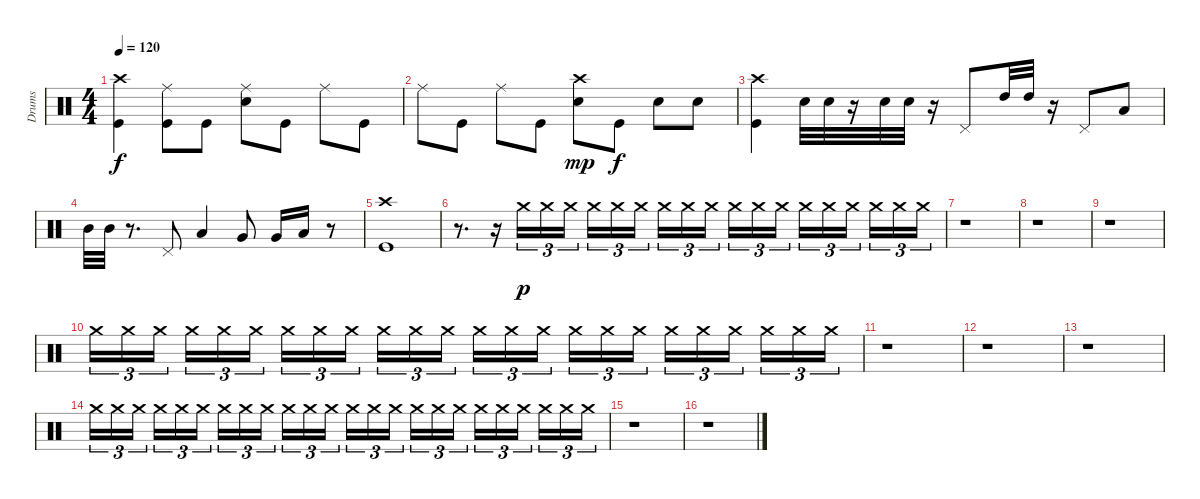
\track ("Drums" "Drums") {instrument percussion}
\staff {score}
\articulation defaults
\ts (4 4)
\tempo 120
\clef neutral
\ks c
("Crash high (hit)" "Kick (hit)").4{dy f} ("Ride (middle)" "Kick (hit)").8 "Kick (hit)".8 ("Ride (middle)" "Snare (hit) 2").8 "Kick (hit)".8 "Ride (middle)".8 "Kick (hit)".8 |
"Ride (middle)".8 "Kick (hit)".8 "Ride (middle)".8 "Kick (hit)".8 ("Crash high (hit)" "Snare (hit) 2").8{dy mp} "Kick (hit)".8{dy f} "Snare (hit) 2".8 "Snare (hit) 2".8 |
("Crash high (hit)" "Kick (hit)").4 "Snare (hit) 2".32 "Snare (hit) 2".32 r.16 "Snare (hit) 2".32 "Snare (hit) 2".32 r.16 "Pedal Hi-Hat (hit)".8 "High Tom (hit)".32 "High Tom (hit)".32 r.16 "Pedal Hi-Hat (hit)".8 "Low Tom (hit)".8 |
"Mid Tom (hit)".32 "Mid Tom (hit)".32 r.8{d} "Pedal Hi-Hat (hit)".8 "Low Tom (hit)".4 "Very Low Tom (hit)".8 "Very Low Tom (hit)".16 "Low Floor Tom (hit)".16 r.8 |
("Crash high (hit)" "Kick (hit)").1 |
r.8{d} r.16{volume 2} "Crash medium (hit)".16{tu (3 2) dy p volume 16} "Crash medium (hit)".16{tu (3 2)} "Crash medium (hit)".16{tu (3 2)} "Crash medium (hit)".16{tu (3 2)} "Crash medium (hit)".16{tu (3 2)} "Crash medium (hit)".16{tu (3 2)} "Crash medium (hit)".16{tu (3 2)} "Crash medium (hit)".16{tu (3 2)} "Crash medium (hit)".16{tu (3 2)} "Crash medium (hit)".16{tu (3 2)} "Crash medium (hit)".16{tu (3 2)} "Crash medium (hit)".16{tu (3 2)} "Crash medium (hit)".16{tu (3 2)} "Crash medium (hit)".16{tu (3 2)} "Crash medium (hit)".16{tu (3 2)} "Crash medium (hit)".16{tu (3 2)} "Crash medium (hit)".16{tu (3 2)} "Crash medium (hit)".16{tu (3 2)} |
r.1 |
r.1 |
r.1{volume 0} |
"Crash medium (hit)".16{tu (3 2) volume 16} "Crash medium (hit)".16{tu (3 2)} "Crash medium (hit)".16{tu (3 2)} "Crash medium (hit)".16{tu (3 2)} "Crash medium (hit)".16{tu (3 2)} "Crash medium (hit)".16{tu (3 2)} "Crash medium (hit)".16{tu (3 2)} "Crash medium (hit)".16{tu (3 2)} "Crash medium (hit)".16{tu (3 2)} "Crash medium (hit)".16{tu (3 2)} "Crash medium (hit)".16{tu (3 2)} "Crash medium (hit)".16{tu (3 2)} "Crash medium (hit)".16{tu (3 2)} "Crash medium (hit)".16{tu (3 2)} "Crash medium (hit)".16{tu (3 2)} "Crash medium (hit)".16{tu (3 2)} "Crash medium (hit)".16{tu (3 2)} "Crash medium (hit)".16{tu (3 2)} "Crash medium (hit)".16{tu (3 2)} "Crash medium (hit)".16{tu (3 2)} "Crash medium (hit)".16{tu (3 2)} "Crash medium (hit)".16{tu (3 2)} "Crash medium (hit)".16{tu (3 2)} "Crash medium (hit)".16{tu (3 2)} |
r.1 |
r.1 |
r.1{volume 0} |
"Crash medium (hit)".16{tu (3 2) volume 16} "Crash medium (hit)".16{tu (3 2)} "Crash medium (hit)".16{tu (3 2)} "Crash medium (hit)".16{tu (3 2)} "Crash medium (hit)".16{tu (3 2)} "Crash medium (hit)".16{tu (3 2)} "Crash medium (hit)".16{tu (3 2)} "Crash medium (hit)".16{tu (3 2)} "Crash medium (hit)".16{tu (3 2)} "Crash medium (hit)".16{tu (3 2)} "Crash medium (hit)".16{tu (3 2)} "Crash medium (hit)".16{tu (3 2)} "Crash medium (hit)".16{tu (3 2)} "Crash medium (hit)".16{tu (3 2)} "Crash medium (hit)".16{tu (3 2)} "Crash medium (hit)".16{tu (3 2)} "Crash medium (hit)".16{tu (3 2)} "Crash medium (hit)".16{tu (3 2)} "Crash medium (hit)".16{tu (3 2)} "Crash medium (hit)".16{tu (3 2)} "Crash medium (hit)".16{tu (3 2)} "Crash medium (hit)".16{tu (3 2)} "Crash medium (hit)".16{tu (3 2)} "Crash medium (hit)".16{tu (3 2)} |
r.1 |
r.1
